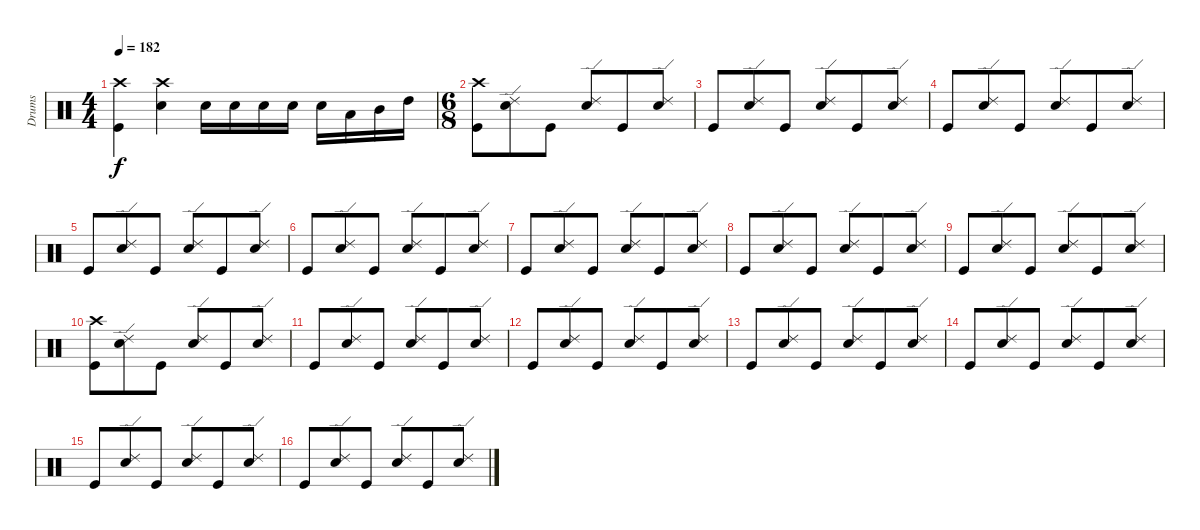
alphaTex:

\track ("Drums" "Drums") {instrument percussion}
\staff {score}
\articulation defaults
\ts (4 4)
\tempo 182
\clef neutral
\ks c
("Crash high (hit)" "Kick (hit)").4{dy f} ("Crash high (hit)" "Electric Snare (hit)").4 "Electric Snare (hit)".16 "Electric Snare (hit)".16 "Electric Snare (hit)".16 "Electric Snare (hit)".16 "Electric Snare (hit)".16 "Low Tom (hit)".16 "Mid Tom (hit)".16 "High Tom (hit)".16 |
\ts (6 8)
("Crash high (hit)" "Kick (hit)").8 ("Ride (edge) 2" "Electric Snare (hit)").8 "Kick (hit)".8 ("Ride (edge) 2" "Electric Snare (hit)").8 "Kick (hit)".8 ("Ride (edge) 2" "Electric Snare (hit)").8 |
"Kick (hit)".8 ("Ride (edge) 2" "Electric Snare (hit)").8 "Kick (hit)".8 ("Ride (edge) 2" "Electric Snare (hit)").8 "Kick (hit)".8 ("Ride (edge) 2" "Electric Snare (hit)").8 |
"Kick (hit)".8 ("Ride (edge) 2" "Electric Snare (hit)").8 "Kick (hit)".8 ("Ride (edge) 2" "Electric Snare (hit)").8 "Kick (hit)".8 ("Ride (edge) 2" "Electric Snare (hit)").8 |
"Kick (hit)".8 ("Ride (edge) 2" "Electric Snare (hit)").8 "Kick (hit)".8 ("Ride (edge) 2" "Electric Snare (hit)").8 "Kick (hit)".8 ("Ride (edge) 2" "Electric Snare (hit)").8 |
"Kick (hit)".8 ("Ride (edge) 2" "Electric Snare (hit)").8 "Kick (hit)".8 ("Ride (edge) 2" "Electric Snare (hit)").8 "Kick (hit)".8 ("Ride (edge) 2" "Electric Snare (hit)").8 |
"Kick (hit)".8 ("Ride (edge) 2" "Electric Snare (hit)").8 "Kick (hit)".8 ("Ride (edge) 2" "Electric Snare (hit)").8 "Kick (hit)".8 ("Ride (edge) 2" "Electric Snare (hit)").8 |
"Kick (hit)".8 ("Ride (edge) 2" "Electric Snare (hit)").8 "Kick (hit)".8 ("Ride (edge) 2" "Electric Snare (hit)").8 "Kick (hit)".8 ("Ride (edge) 2" "Electric Snare (hit)").8 |
"Kick (hit)".8 ("Ride (edge) 2" "Electric Snare (hit)").8 "Kick (hit)".8 ("Ride (edge) 2" "Electric Snare (hit)").8 "Kick (hit)".8 ("Ride (edge) 2" "Electric Snare (hit)").8 |
("Crash high (hit)" "Kick (hit)").8 ("Ride (edge) 2" "Electric Snare (hit)").8 "Kick (hit)".8 ("Ride (edge) 2" "Electric Snare (hit)").8 "Kick (hit)".8 ("Ride (edge) 2" "Electric Snare (hit)").8 |
"Kick (hit)".8 ("Ride (edge) 2" "Electric Snare (hit)").8 "Kick (hit)".8 ("Ride (edge) 2" "Electric Snare (hit)").8 "Kick (hit)".8 ("Ride (edge) 2" "Electric Snare (hit)").8 |
"Kick (hit)".8 ("Ride (edge) 2" "Electric Snare (hit)").8 "Kick (hit)".8 ("Ride (edge) 2" "Electric Snare (hit)").8 "Kick (hit)".8 ("Ride (edge) 2" "Electric Snare (hit)").8 |
"Kick (hit)".8 ("Ride (edge) 2" "Electric Snare (hit)").8 "Kick (hit)".8 ("Ride (edge) 2" "Electric Snare (hit)").8 "Kick (hit)".8 ("Ride (edge) 2" "Electric Snare (hit)").8 |
"Kick (hit)".8 ("Ride (edge) 2" "Electric Snare (hit)").8 "Kick (hit)".8 ("Ride (edge) 2" "Electric Snare (hit)").8 "Kick (hit)".8 ("Ride (edge) 2" "Electric Snare (hit)").8 |
"Kick (hit)".8 ("Ride (edge) 2" "Electric Snare (hit)").8 "Kick (hit)".8 ("Ride (edge) 2" "Electric Snare (hit)").8 "Kick (hit)".8 ("Ride (edge) 2" "Electric Snare (hit)").8 |
"Kick (hit)".8 ("Ride (edge) 2" "Electric Snare (hit)").8 "Kick (hit)".8 ("Ride (edge) 2" "Electric Snare (hit)").8 "Kick (hit)".8 ("Ride (edge) 2" "Electric Snare (hit)").8
